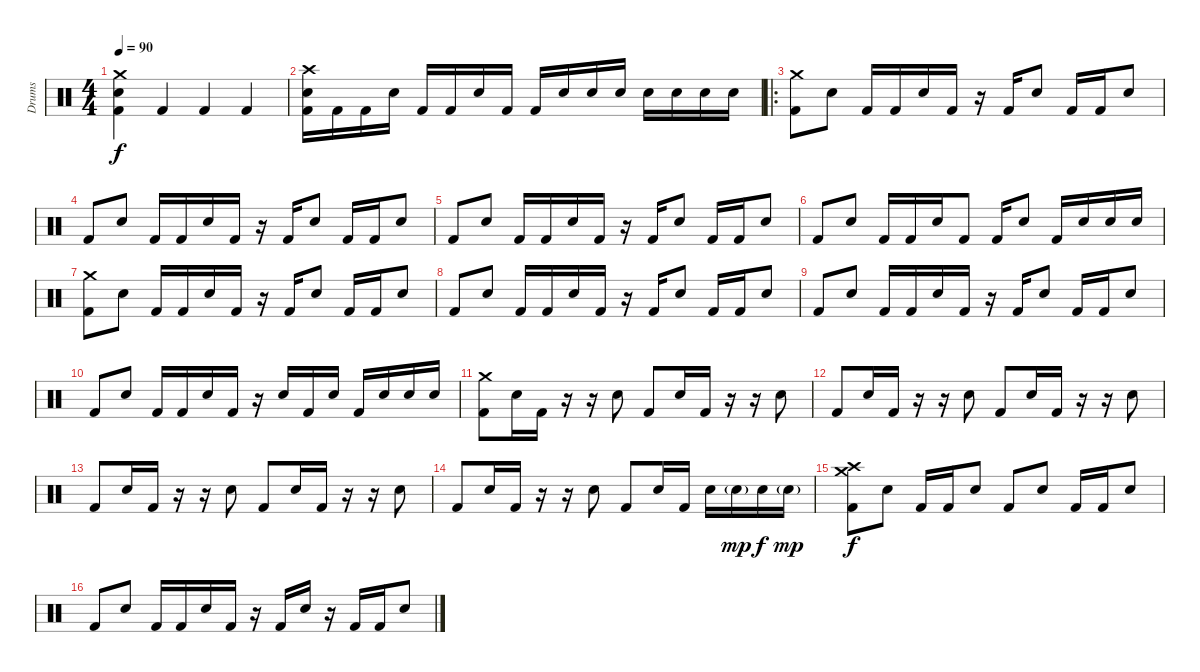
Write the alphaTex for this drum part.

\track ("Drums" "Drums") {instrument percussion}
\staff {score}
\articulation defaults
\ts (4 4)
\tempo 90
\clef neutral
\ks c
("Crash medium (hit)" "Snare (hit) 2" "Kick (hit) 2").4{dy f} "Kick (hit) 2".4 "Kick (hit) 2".4 "Kick (hit) 2".4 |
("Crash high (hit)" "Snare (hit) 2" "Kick (hit) 2").16 "Kick (hit) 2".16 "Kick (hit) 2".16 "Snare (hit) 2".16 "Kick (hit) 2".16 "Kick (hit) 2".16 "Snare (hit) 2".16 "Kick (hit) 2".16 "Kick (hit) 2".16 "Snare (hit) 2".16 "Snare (hit) 2".16 "Snare (hit) 2".16 "Snare (hit) 2".16 "Snare (hit) 2".16 "Snare (hit) 2".16 "Snare (hit) 2".16 |
\ro
("Crash medium (hit)" "Kick (hit) 2").8 "Snare (hit) 2".8 "Kick (hit) 2".16 "Kick (hit) 2".16 "Snare (hit) 2".16 "Kick (hit) 2".16 r.16 "Kick (hit) 2".16 "Snare (hit) 2".8 "Kick (hit) 2".16 "Kick (hit) 2".16 "Snare (hit) 2".8 |
"Kick (hit) 2".8 "Snare (hit) 2".8 "Kick (hit) 2".16 "Kick (hit) 2".16 "Snare (hit) 2".16 "Kick (hit) 2".16 r.16 "Kick (hit) 2".16 "Snare (hit) 2".8 "Kick (hit) 2".16 "Kick (hit) 2".16 "Snare (hit) 2".8 |
"Kick (hit) 2".8 "Snare (hit) 2".8 "Kick (hit) 2".16 "Kick (hit) 2".16 "Snare (hit) 2".16 "Kick (hit) 2".16 r.16 "Kick (hit) 2".16 "Snare (hit) 2".8 "Kick (hit) 2".16 "Kick (hit) 2".16 "Snare (hit) 2".8 |
"Kick (hit) 2".8 "Snare (hit) 2".8 "Kick (hit) 2".16 "Kick (hit) 2".16 "Snare (hit) 2".16 "Kick (hit) 2".8 "Kick (hit) 2".16 "Snare (hit) 2".8 "Kick (hit) 2".16 "Snare (hit) 2".16 "Snare (hit) 2".16 "Snare (hit) 2".16 |
("Crash medium (hit)" "Kick (hit) 2").8 "Snare (hit) 2".8 "Kick (hit) 2".16 "Kick (hit) 2".16 "Snare (hit) 2".16 "Kick (hit) 2".16 r.16 "Kick (hit) 2".16 "Snare (hit) 2".8 "Kick (hit) 2".16 "Kick (hit) 2".16 "Snare (hit) 2".8 |
"Kick (hit) 2".8 "Snare (hit) 2".8 "Kick (hit) 2".16 "Kick (hit) 2".16 "Snare (hit) 2".16 "Kick (hit) 2".16 r.16 "Kick (hit) 2".16 "Snare (hit) 2".8 "Kick (hit) 2".16 "Kick (hit) 2".16 "Snare (hit) 2".8 |
"Kick (hit) 2".8 "Snare (hit) 2".8 "Kick (hit) 2".16 "Kick (hit) 2".16 "Snare (hit) 2".16 "Kick (hit) 2".16 r.16 "Kick (hit) 2".16 "Snare (hit) 2".8 "Kick (hit) 2".16 "Kick (hit) 2".16 "Snare (hit) 2".8 |
"Kick (hit) 2".8 "Snare (hit) 2".8 "Kick (hit) 2".16 "Kick (hit) 2".16 "Snare (hit) 2".16 "Kick (hit) 2".16 r.16 "Snare (hit) 2".16 "Kick (hit) 2".16 "Snare (hit) 2".16 "Kick (hit) 2".16 "Snare (hit) 2".16 "Snare (hit) 2".16 "Snare (hit) 2".16 |
("Crash medium (hit)" "Kick (hit) 2").8 "Snare (hit) 2".16 "Kick (hit) 2".16 r.16 r.16 "Snare (hit) 2".8 "Kick (hit) 2".8 "Snare (hit) 2".16 "Kick (hit) 2".16 r.16 r.16 "Snare (hit) 2".8 |
"Kick (hit) 2".8 "Snare (hit) 2".16 "Kick (hit) 2".16 r.16 r.16 "Snare (hit) 2".8 "Kick (hit) 2".8 "Snare (hit) 2".16 "Kick (hit) 2".16 r.16 r.16 "Snare (hit) 2".8 |
"Kick (hit) 2".8 "Snare (hit) 2".16 "Kick (hit) 2".16 r.16 r.16 "Snare (hit) 2".8 "Kick (hit) 2".8 "Snare (hit) 2".16 "Kick (hit) 2".16 r.16 r.16 "Snare (hit) 2".8 |
"Kick (hit) 2".8 "Snare (hit) 2".16 "Kick (hit) 2".16 r.16 r.16 "Snare (hit) 2".8 "Kick (hit) 2".8 "Snare (hit) 2".16 "Kick (hit) 2".16 "Snare (hit) 2".16 "Snare (hit) 2"{g}.16{dy mp} "Snare (hit) 2".16{dy f} "Snare (hit) 2"{g}.16{dy mp} |
("Crash medium (hit)" "Crash high (hit)" "Kick (hit) 2").8{dy f} "Snare (hit) 2".8 "Kick (hit) 2".16 "Kick (hit) 2".16 "Snare (hit) 2".8 "Kick (hit) 2".8 "Snare (hit) 2".8 "Kick (hit) 2".16 "Kick (hit) 2".16 "Snare (hit) 2".8 |
"Kick (hit) 2".8 "Snare (hit) 2".8 "Kick (hit) 2".16 "Kick (hit) 2".16 "Snare (hit) 2".16 "Kick (hit) 2".16 r.16 "Kick (hit) 2".16 "Snare (hit) 2".16 r.16 "Kick (hit) 2".16 "Kick (hit) 2".16 "Snare (hit) 2".8
